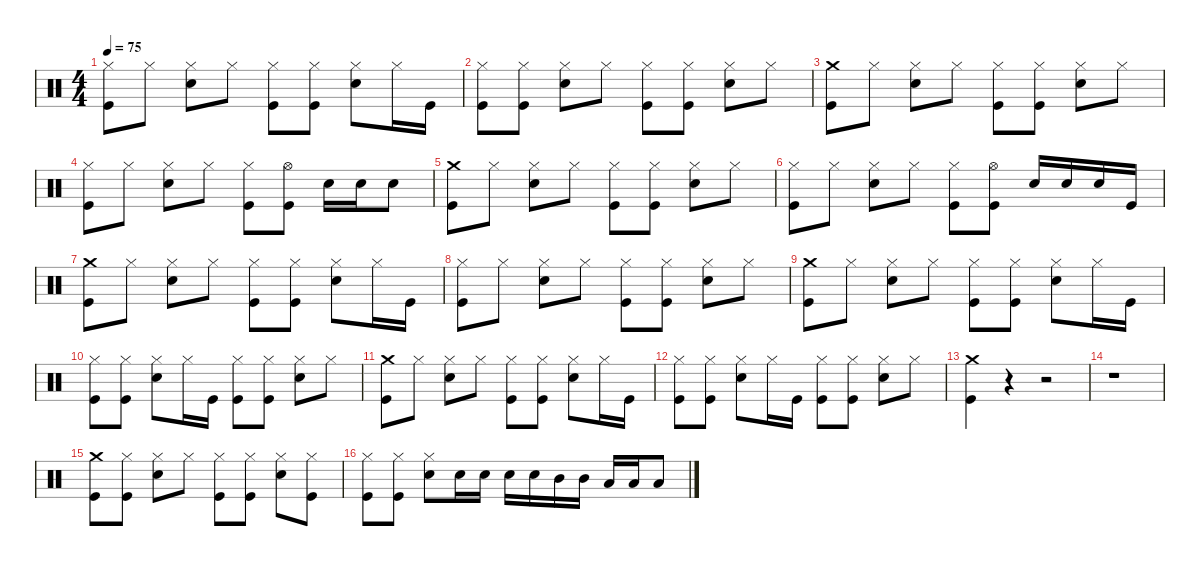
\defaultSystemsLayout 4
\hideDynamics
\bracketExtendMode nobrackets
\singleTrackTrackNamePolicy hidden
\multiTrackTrackNamePolicy hidden
\otherSystemsTrackNameOrientation horizontal
\track ("John Bonham (Bateria)" "drm.") {instrument percussion}
\staff {score}
\articulation defaults
\ts (4 4)
\tempo 75
\clef neutral
\ks c
("Hi-Hat (closed)" "Kick (hit)").8{dy fff beam Down} "Hi-Hat (closed)".8{beam Down} ("Hi-Hat (closed)" "Snare (hit) 2").8{beam Down} "Hi-Hat (closed)".8{beam Down} ("Hi-Hat (closed)" "Kick (hit)").8{beam Down} ("Hi-Hat (closed)" "Kick (hit)").8{beam Down} ("Hi-Hat (closed)" "Snare (hit) 2").8{beam Down} "Hi-Hat (closed)".16{beam Down} "Kick (hit)".16{beam Down} |
("Hi-Hat (closed)" "Kick (hit)").8{beam Down} ("Hi-Hat (closed)" "Kick (hit)").8{beam Down} ("Hi-Hat (closed)" "Snare (hit) 2").8{beam Down} "Hi-Hat (closed)".8{beam Down} ("Hi-Hat (closed)" "Kick (hit)").8{beam Down} ("Hi-Hat (closed)" "Kick (hit)").8{beam Down} ("Hi-Hat (closed)" "Snare (hit) 2").8{beam Down} "Hi-Hat (closed)".8{beam Down} |
("Crash medium (hit)" "Kick (hit)").8{beam Down} "Hi-Hat (closed)".8{beam Down} ("Hi-Hat (closed)" "Snare (hit) 2").8{beam Down} "Hi-Hat (closed)".8{beam Down} ("Hi-Hat (closed)" "Kick (hit)").8{beam Down} ("Hi-Hat (closed)" "Kick (hit)").8{beam Down} ("Hi-Hat (closed)" "Snare (hit) 2").8{beam Down} "Hi-Hat (closed)".8{beam Down} |
("Hi-Hat (closed)" "Kick (hit)").8{beam Down} "Hi-Hat (closed)".8{beam Down} ("Hi-Hat (closed)" "Snare (hit) 2").8{beam Down} "Hi-Hat (closed)".8{beam Down} ("Hi-Hat (closed)" "Kick (hit)").8{beam Down} ("Hi-Hat (open)" "Kick (hit)").8{beam Down} "Snare (hit) 2".16{beam Down} "Snare (hit) 2".16{beam Down} "Snare (hit) 2".8{beam Down} |
("Crash medium (hit)" "Kick (hit)").8{beam Down} "Hi-Hat (closed)".8{beam Down} ("Hi-Hat (closed)" "Snare (hit) 2").8{beam Down} "Hi-Hat (closed)".8{beam Down} ("Hi-Hat (closed)" "Kick (hit)").8{beam Down} ("Hi-Hat (closed)" "Kick (hit)").8{beam Down} ("Hi-Hat (closed)" "Snare (hit) 2").8{beam Down} "Hi-Hat (closed)".8{beam Down} |
("Hi-Hat (closed)" "Kick (hit)").8{beam Down} "Hi-Hat (closed)".8{beam Down} ("Hi-Hat (closed)" "Snare (hit) 2").8{beam Down} "Hi-Hat (closed)".8{beam Down} ("Hi-Hat (closed)" "Kick (hit)").8{beam Down} ("Hi-Hat (open)" "Kick (hit)").8{beam Down} "Snare (hit) 2".16{beam Up} "Snare (hit) 2".16{beam Up} "Snare (hit) 2".16{beam Up} "Kick (hit)".16{beam Up} |
("Crash medium (hit)" "Kick (hit)").8{beam Down} "Hi-Hat (closed)".8{beam Down} ("Hi-Hat (closed)" "Snare (hit) 2").8{beam Down} "Hi-Hat (closed)".8{beam Down} ("Hi-Hat (closed)" "Kick (hit)").8{beam Down} ("Hi-Hat (closed)" "Kick (hit)").8{beam Down} ("Hi-Hat (closed)" "Snare (hit) 2").8{beam Down} "Hi-Hat (closed)".16{beam Down} "Kick (hit)".16{beam Down} |
("Hi-Hat (closed)" "Kick (hit)").8{beam Down} "Hi-Hat (closed)".8{beam Down} ("Hi-Hat (closed)" "Snare (hit) 2").8{beam Down} "Hi-Hat (closed)".8{beam Down} ("Hi-Hat (closed)" "Kick (hit)").8{beam Down} ("Hi-Hat (closed)" "Kick (hit)").8{beam Down} ("Hi-Hat (closed)" "Snare (hit) 2").8{beam Down} "Hi-Hat (closed)".8{beam Down} |
("Crash medium (hit)" "Kick (hit)").8{beam Down} "Hi-Hat (closed)".8{beam Down} ("Hi-Hat (closed)" "Snare (hit) 2").8{beam Down} "Hi-Hat (closed)".8{beam Down} ("Hi-Hat (closed)" "Kick (hit)").8{beam Down} ("Hi-Hat (closed)" "Kick (hit)").8{beam Down} ("Hi-Hat (closed)" "Snare (hit) 2").8{beam Down} "Hi-Hat (closed)".16{beam Down} "Kick (hit)".16{beam Down} |
("Hi-Hat (closed)" "Kick (hit)").8{beam Down} ("Hi-Hat (closed)" "Kick (hit)").8{beam Down} ("Hi-Hat (closed)" "Snare (hit) 2").8{beam Down} "Hi-Hat (closed)".16{beam Down} "Kick (hit)".16{beam Down} ("Hi-Hat (closed)" "Kick (hit)").8{beam Down} ("Hi-Hat (closed)" "Kick (hit)").8{beam Down} ("Hi-Hat (closed)" "Snare (hit) 2").8{beam Down} "Hi-Hat (closed)".8{beam Down} |
("Crash medium (hit)" "Kick (hit)").8{beam Down} "Hi-Hat (closed)".8{beam Down} ("Hi-Hat (closed)" "Snare (hit) 2").8{beam Down} "Hi-Hat (closed)".8{beam Down} ("Hi-Hat (closed)" "Kick (hit)").8{beam Down} ("Hi-Hat (closed)" "Kick (hit)").8{beam Down} ("Hi-Hat (closed)" "Snare (hit) 2").8{beam Down} "Hi-Hat (closed)".16{beam Down} "Kick (hit)".16{beam Down} |
("Hi-Hat (closed)" "Kick (hit)").8{beam Down} ("Hi-Hat (closed)" "Kick (hit)").8{beam Down} ("Hi-Hat (closed)" "Snare (hit) 2").8{beam Down} "Hi-Hat (closed)".16{beam Down} "Kick (hit)".16{beam Down} ("Hi-Hat (closed)" "Kick (hit)").8{beam Down} ("Hi-Hat (closed)" "Kick (hit)").8{beam Down} ("Hi-Hat (closed)" "Snare (hit) 2").8{beam Down} "Hi-Hat (closed)".8{beam Down} |
("Crash medium (hit)" "Kick (hit)").4{beam Down} r.4{beam Down} r.2{beam Down} |
r.1{beam Down} |
("Crash medium (hit)" "Kick (hit)").8{beam Down} ("Hi-Hat (closed)" "Kick (hit)").8{beam Down} ("Hi-Hat (closed)" "Snare (hit) 2").8{beam Down} "Hi-Hat (closed)".8{beam Down} ("Hi-Hat (closed)" "Kick (hit)").8{beam Down} ("Hi-Hat (closed)" "Kick (hit)").8{beam Down} ("Hi-Hat (closed)" "Snare (hit) 2").8{beam Down} ("Hi-Hat (closed)" "Kick (hit)").8{beam Down} |
("Hi-Hat (closed)" "Kick (hit)").8{beam Down} ("Hi-Hat (closed)" "Kick (hit)").8{beam Down} ("Hi-Hat (closed)" "Snare (hit) 2").8{beam Down} "Snare (hit) 2".16{beam Down} "Snare (hit) 2".16{beam Down} "Snare (hit) 2".16{beam Down} "Snare (hit) 2".16{beam Down} "Mid Tom (hit)".16{beam Down} "Mid Tom (hit)".16{beam Down} "Low Tom (hit)".16{beam Up} "Low Tom (hit)".16{beam Up} "Low Tom (hit)".8{beam Up}
